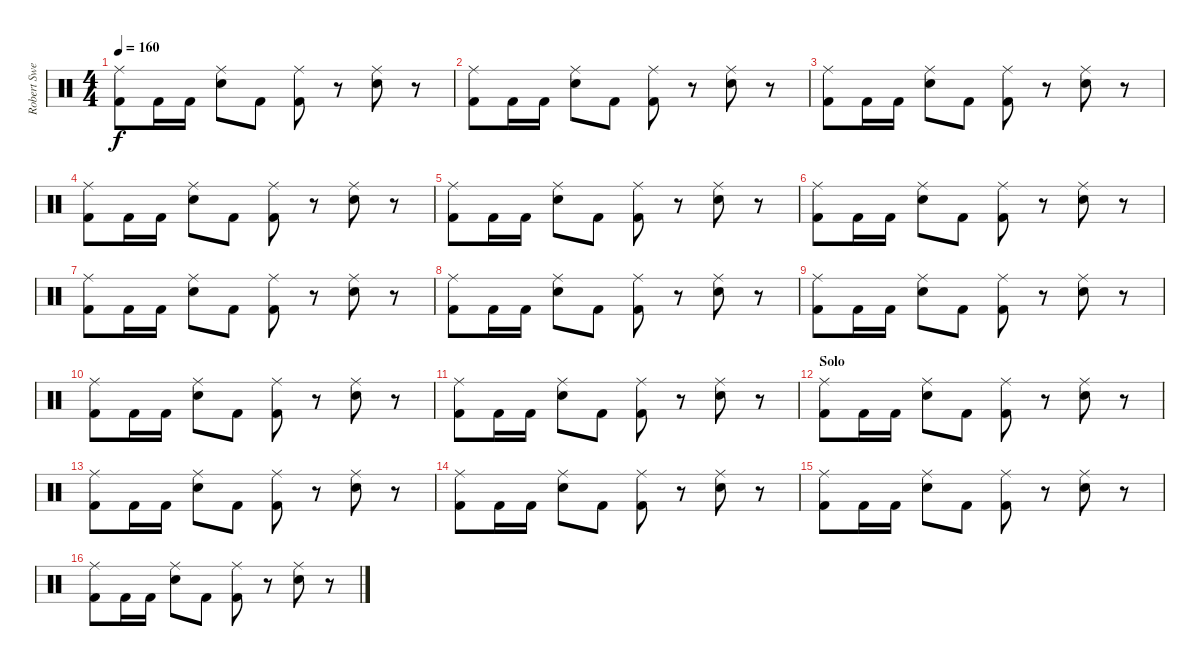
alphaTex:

\track ("Robert Sweet" "Robert Swe") {instrument percussion}
\staff {score}
\articulation defaults
\ts (4 4)
\tempo 160
\clef neutral
\ks c
("Ride (middle)" "Kick (hit) 2").8{dy f} "Kick (hit) 2".16 "Kick (hit) 2".16 ("Ride (middle)" "Electric Snare (hit)").8 "Kick (hit) 2".8 ("Ride (middle)" "Kick (hit) 2").8 r.8 ("Ride (middle)" "Electric Snare (hit)").8 r.8 |
("Ride (middle)" "Kick (hit) 2").8 "Kick (hit) 2".16 "Kick (hit) 2".16 ("Ride (middle)" "Electric Snare (hit)").8 "Kick (hit) 2".8 ("Ride (middle)" "Kick (hit) 2").8 r.8 ("Ride (middle)" "Electric Snare (hit)").8 r.8 |
("Ride (middle)" "Kick (hit) 2").8 "Kick (hit) 2".16 "Kick (hit) 2".16 ("Ride (middle)" "Electric Snare (hit)").8 "Kick (hit) 2".8 ("Ride (middle)" "Kick (hit) 2").8 r.8 ("Ride (middle)" "Electric Snare (hit)").8 r.8 |
("Ride (middle)" "Kick (hit) 2").8 "Kick (hit) 2".16 "Kick (hit) 2".16 ("Ride (middle)" "Electric Snare (hit)").8 "Kick (hit) 2".8 ("Ride (middle)" "Kick (hit) 2").8 r.8 ("Ride (middle)" "Electric Snare (hit)").8 r.8 |
("Ride (middle)" "Kick (hit) 2").8 "Kick (hit) 2".16 "Kick (hit) 2".16 ("Ride (middle)" "Electric Snare (hit)").8 "Kick (hit) 2".8 ("Ride (middle)" "Kick (hit) 2").8 r.8 ("Ride (middle)" "Electric Snare (hit)").8 r.8 |
("Ride (middle)" "Kick (hit) 2").8 "Kick (hit) 2".16 "Kick (hit) 2".16 ("Ride (middle)" "Electric Snare (hit)").8 "Kick (hit) 2".8 ("Ride (middle)" "Kick (hit) 2").8 r.8 ("Ride (middle)" "Electric Snare (hit)").8 r.8 |
("Ride (middle)" "Kick (hit) 2").8 "Kick (hit) 2".16 "Kick (hit) 2".16 ("Ride (middle)" "Electric Snare (hit)").8 "Kick (hit) 2".8 ("Ride (middle)" "Kick (hit) 2").8 r.8 ("Ride (middle)" "Electric Snare (hit)").8 r.8 |
("Ride (middle)" "Kick (hit) 2").8 "Kick (hit) 2".16 "Kick (hit) 2".16 ("Ride (middle)" "Electric Snare (hit)").8 "Kick (hit) 2".8 ("Ride (middle)" "Kick (hit) 2").8 r.8 ("Ride (middle)" "Electric Snare (hit)").8 r.8 |
("Ride (middle)" "Kick (hit) 2").8 "Kick (hit) 2".16 "Kick (hit) 2".16 ("Ride (middle)" "Electric Snare (hit)").8 "Kick (hit) 2".8 ("Ride (middle)" "Kick (hit) 2").8 r.8 ("Ride (middle)" "Electric Snare (hit)").8 r.8 |
("Ride (middle)" "Kick (hit) 2").8 "Kick (hit) 2".16 "Kick (hit) 2".16 ("Ride (middle)" "Electric Snare (hit)").8 "Kick (hit) 2".8 ("Ride (middle)" "Kick (hit) 2").8 r.8 ("Ride (middle)" "Electric Snare (hit)").8 r.8 |
("Ride (middle)" "Kick (hit) 2").8 "Kick (hit) 2".16 "Kick (hit) 2".16 ("Ride (middle)" "Electric Snare (hit)").8 "Kick (hit) 2".8 ("Ride (middle)" "Kick (hit) 2").8 r.8 ("Ride (middle)" "Electric Snare (hit)").8 r.8 |
\section ("" "Solo")
("Ride (middle)" "Kick (hit) 2").8 "Kick (hit) 2".16 "Kick (hit) 2".16 ("Ride (middle)" "Electric Snare (hit)").8 "Kick (hit) 2".8 ("Ride (middle)" "Kick (hit) 2").8 r.8 ("Ride (middle)" "Electric Snare (hit)").8 r.8 |
("Ride (middle)" "Kick (hit) 2").8 "Kick (hit) 2".16 "Kick (hit) 2".16 ("Ride (middle)" "Electric Snare (hit)").8 "Kick (hit) 2".8 ("Ride (middle)" "Kick (hit) 2").8 r.8 ("Ride (middle)" "Electric Snare (hit)").8 r.8 |
("Ride (middle)" "Kick (hit) 2").8 "Kick (hit) 2".16 "Kick (hit) 2".16 ("Ride (middle)" "Electric Snare (hit)").8 "Kick (hit) 2".8 ("Ride (middle)" "Kick (hit) 2").8 r.8 ("Ride (middle)" "Electric Snare (hit)").8 r.8 |
("Ride (middle)" "Kick (hit) 2").8 "Kick (hit) 2".16 "Kick (hit) 2".16 ("Ride (middle)" "Electric Snare (hit)").8 "Kick (hit) 2".8 ("Ride (middle)" "Kick (hit) 2").8 r.8 ("Ride (middle)" "Electric Snare (hit)").8 r.8 |
("Ride (middle)" "Kick (hit) 2").8 "Kick (hit) 2".16 "Kick (hit) 2".16 ("Ride (middle)" "Electric Snare (hit)").8 "Kick (hit) 2".8 ("Ride (middle)" "Kick (hit) 2").8 r.8 ("Ride (middle)" "Electric Snare (hit)").8 r.8
